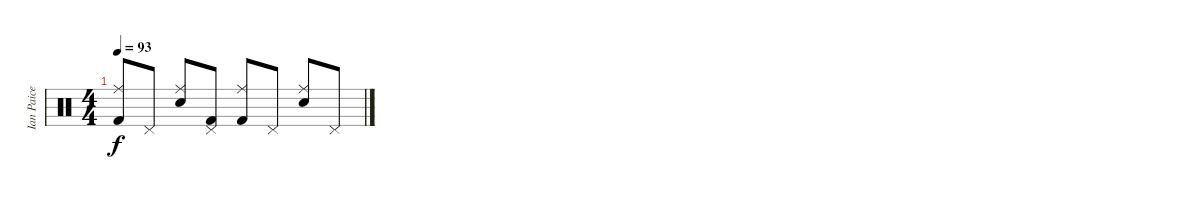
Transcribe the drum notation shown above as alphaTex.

\track ("Ian Paice (drums)" "Ian Paice ") {instrument percussion}
\staff {score}
\articulation defaults
\ts (4 4)
\tempo 93
\clef neutral
\ks c
("Ride (middle)" "Kick (hit) 2").8{dy f} "Pedal Hi-Hat (hit)".8 ("Ride (middle)" "Electric Snare (hit)").8 ("Pedal Hi-Hat (hit)" "Kick (hit) 2").8 ("Ride (middle)" "Kick (hit) 2").8 "Pedal Hi-Hat (hit)".8 ("Ride (middle)" "Electric Snare (hit)").8 "Pedal Hi-Hat (hit)".8
